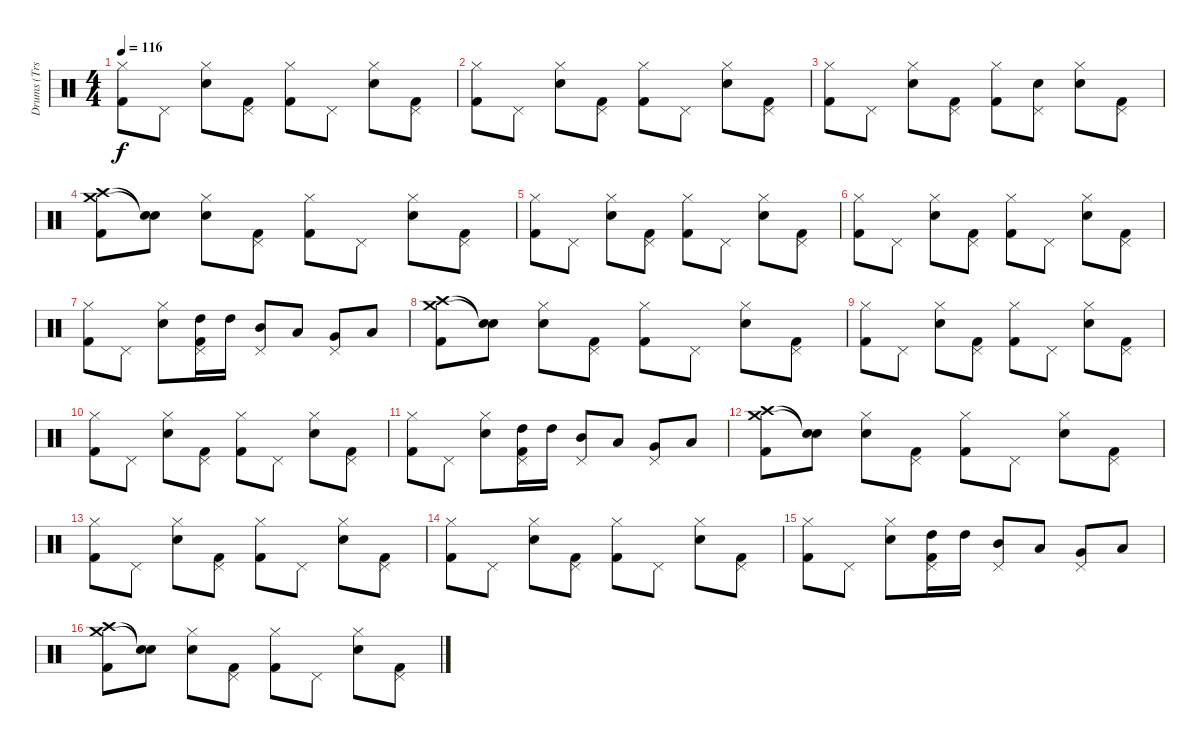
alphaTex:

\track ("Drums (Trs. 7-8A, 10A/7-8B, 10B, 12-13B)" "Drums (Trs") {mute instrument percussion}
\staff {score}
\articulation defaults
\ts (4 4)
\tempo 116
\clef neutral
\ks c
("Hi-Hat (closed)" "Kick (hit) 2").8{dy f} "Pedal Hi-Hat (hit)".8 ("Electric Snare (hit)" "Hi-Hat (closed)").8 ("Pedal Hi-Hat (hit)" "Kick (hit) 2").8 ("Hi-Hat (closed)" "Kick (hit) 2").8 "Pedal Hi-Hat (hit)".8 ("Electric Snare (hit)" "Hi-Hat (closed)").8 ("Pedal Hi-Hat (hit)" "Kick (hit) 2").8 |
("Hi-Hat (closed)" "Kick (hit) 2").8 "Pedal Hi-Hat (hit)".8 ("Electric Snare (hit)" "Hi-Hat (closed)").8 ("Pedal Hi-Hat (hit)" "Kick (hit) 2").8 ("Hi-Hat (closed)" "Kick (hit) 2").8 "Pedal Hi-Hat (hit)".8 ("Electric Snare (hit)" "Hi-Hat (closed)").8 ("Pedal Hi-Hat (hit)" "Kick (hit) 2").8 |
("Hi-Hat (closed)" "Kick (hit) 2").8 "Pedal Hi-Hat (hit)".8 ("Electric Snare (hit)" "Hi-Hat (closed)").8 ("Pedal Hi-Hat (hit)" "Kick (hit) 2").8 ("Hi-Hat (closed)" "Kick (hit) 2").8 ("Electric Snare (hit)" "Pedal Hi-Hat (hit)").8 ("Electric Snare (hit)" "Hi-Hat (closed)").8 ("Pedal Hi-Hat (hit)" "Kick (hit) 2").8 |
("Crash medium (hit)" "Crash high (hit)" "Kick (hit) 2").8 ("Snare (hit)"{t} "Snare (hit)"{t}).8 ("Electric Snare (hit)" "Hi-Hat (closed)").8 ("Pedal Hi-Hat (hit)" "Kick (hit) 2").8 ("Hi-Hat (closed)" "Kick (hit) 2").8 "Pedal Hi-Hat (hit)".8 ("Electric Snare (hit)" "Hi-Hat (closed)").8 ("Pedal Hi-Hat (hit)" "Kick (hit) 2").8 |
("Hi-Hat (closed)" "Kick (hit) 2").8 "Pedal Hi-Hat (hit)".8 ("Electric Snare (hit)" "Hi-Hat (closed)").8 ("Pedal Hi-Hat (hit)" "Kick (hit) 2").8 ("Hi-Hat (closed)" "Kick (hit) 2").8 "Pedal Hi-Hat (hit)".8 ("Electric Snare (hit)" "Hi-Hat (closed)").8 ("Pedal Hi-Hat (hit)" "Kick (hit) 2").8 |
("Hi-Hat (closed)" "Kick (hit) 2").8 "Pedal Hi-Hat (hit)".8 ("Electric Snare (hit)" "Hi-Hat (closed)").8 ("Pedal Hi-Hat (hit)" "Kick (hit) 2").8 ("Hi-Hat (closed)" "Kick (hit) 2").8 "Pedal Hi-Hat (hit)".8 ("Electric Snare (hit)" "Hi-Hat (closed)").8 ("Pedal Hi-Hat (hit)" "Kick (hit) 2").8 |
("Hi-Hat (closed)" "Kick (hit) 2").8 "Pedal Hi-Hat (hit)".8 ("Electric Snare (hit)" "Hi-Hat (closed)").8 ("Pedal Hi-Hat (hit)" "High Tom (hit)" "Kick (hit) 2").16 "High Tom (hit)".16 ("Pedal Hi-Hat (hit)" "Mid Tom (hit)").8 "Low Tom (hit)".8 ("Pedal Hi-Hat (hit)" "Very Low Tom (hit)").8 "Low Floor Tom (hit)".8 |
("Crash medium (hit)" "Crash high (hit)" "Kick (hit) 2").8 ("Snare (hit)"{t} "Snare (hit)"{t}).8 ("Electric Snare (hit)" "Hi-Hat (closed)").8 ("Pedal Hi-Hat (hit)" "Kick (hit) 2").8 ("Hi-Hat (closed)" "Kick (hit) 2").8 "Pedal Hi-Hat (hit)".8 ("Electric Snare (hit)" "Hi-Hat (closed)").8 ("Pedal Hi-Hat (hit)" "Kick (hit) 2").8 |
("Hi-Hat (closed)" "Kick (hit) 2").8 "Pedal Hi-Hat (hit)".8 ("Electric Snare (hit)" "Hi-Hat (closed)").8 ("Pedal Hi-Hat (hit)" "Kick (hit) 2").8 ("Hi-Hat (closed)" "Kick (hit) 2").8 "Pedal Hi-Hat (hit)".8 ("Electric Snare (hit)" "Hi-Hat (closed)").8 ("Pedal Hi-Hat (hit)" "Kick (hit) 2").8 |
("Hi-Hat (closed)" "Kick (hit) 2").8 "Pedal Hi-Hat (hit)".8 ("Electric Snare (hit)" "Hi-Hat (closed)").8 ("Pedal Hi-Hat (hit)" "Kick (hit) 2").8 ("Hi-Hat (closed)" "Kick (hit) 2").8 "Pedal Hi-Hat (hit)".8 ("Electric Snare (hit)" "Hi-Hat (closed)").8 ("Pedal Hi-Hat (hit)" "Kick (hit) 2").8 |
("Hi-Hat (closed)" "Kick (hit) 2").8 "Pedal Hi-Hat (hit)".8 ("Electric Snare (hit)" "Hi-Hat (closed)").8 ("Pedal Hi-Hat (hit)" "High Tom (hit)" "Kick (hit) 2").16 "High Tom (hit)".16 ("Pedal Hi-Hat (hit)" "Mid Tom (hit)").8 "Low Tom (hit)".8 ("Pedal Hi-Hat (hit)" "Very Low Tom (hit)").8 "Low Floor Tom (hit)".8 |
("Crash medium (hit)" "Crash high (hit)" "Kick (hit) 2").8 ("Snare (hit)"{t} "Snare (hit)"{t}).8 ("Electric Snare (hit)" "Hi-Hat (closed)").8 ("Pedal Hi-Hat (hit)" "Kick (hit) 2").8 ("Hi-Hat (closed)" "Kick (hit) 2").8 "Pedal Hi-Hat (hit)".8 ("Electric Snare (hit)" "Hi-Hat (closed)").8 ("Pedal Hi-Hat (hit)" "Kick (hit) 2").8 |
("Hi-Hat (closed)" "Kick (hit) 2").8 "Pedal Hi-Hat (hit)".8 ("Electric Snare (hit)" "Hi-Hat (closed)").8 ("Pedal Hi-Hat (hit)" "Kick (hit) 2").8 ("Hi-Hat (closed)" "Kick (hit) 2").8 "Pedal Hi-Hat (hit)".8 ("Electric Snare (hit)" "Hi-Hat (closed)").8 ("Pedal Hi-Hat (hit)" "Kick (hit) 2").8 |
("Hi-Hat (closed)" "Kick (hit) 2").8 "Pedal Hi-Hat (hit)".8 ("Electric Snare (hit)" "Hi-Hat (closed)").8 ("Pedal Hi-Hat (hit)" "Kick (hit) 2").8 ("Hi-Hat (closed)" "Kick (hit) 2").8 "Pedal Hi-Hat (hit)".8 ("Electric Snare (hit)" "Hi-Hat (closed)").8 ("Pedal Hi-Hat (hit)" "Kick (hit) 2").8 |
("Hi-Hat (closed)" "Kick (hit) 2").8 "Pedal Hi-Hat (hit)".8 ("Electric Snare (hit)" "Hi-Hat (closed)").8 ("Pedal Hi-Hat (hit)" "High Tom (hit)" "Kick (hit) 2").16 "High Tom (hit)".16 ("Pedal Hi-Hat (hit)" "Mid Tom (hit)").8 "Low Tom (hit)".8 ("Pedal Hi-Hat (hit)" "Very Low Tom (hit)").8 "Low Floor Tom (hit)".8 |
("Crash medium (hit)" "Crash high (hit)" "Kick (hit) 2").8 ("Snare (hit)"{t} "Snare (hit)"{t}).8 ("Electric Snare (hit)" "Hi-Hat (closed)").8 ("Pedal Hi-Hat (hit)" "Kick (hit) 2").8 ("Hi-Hat (closed)" "Kick (hit) 2").8 "Pedal Hi-Hat (hit)".8 ("Electric Snare (hit)" "Hi-Hat (closed)").8 ("Pedal Hi-Hat (hit)" "Kick (hit) 2").8
